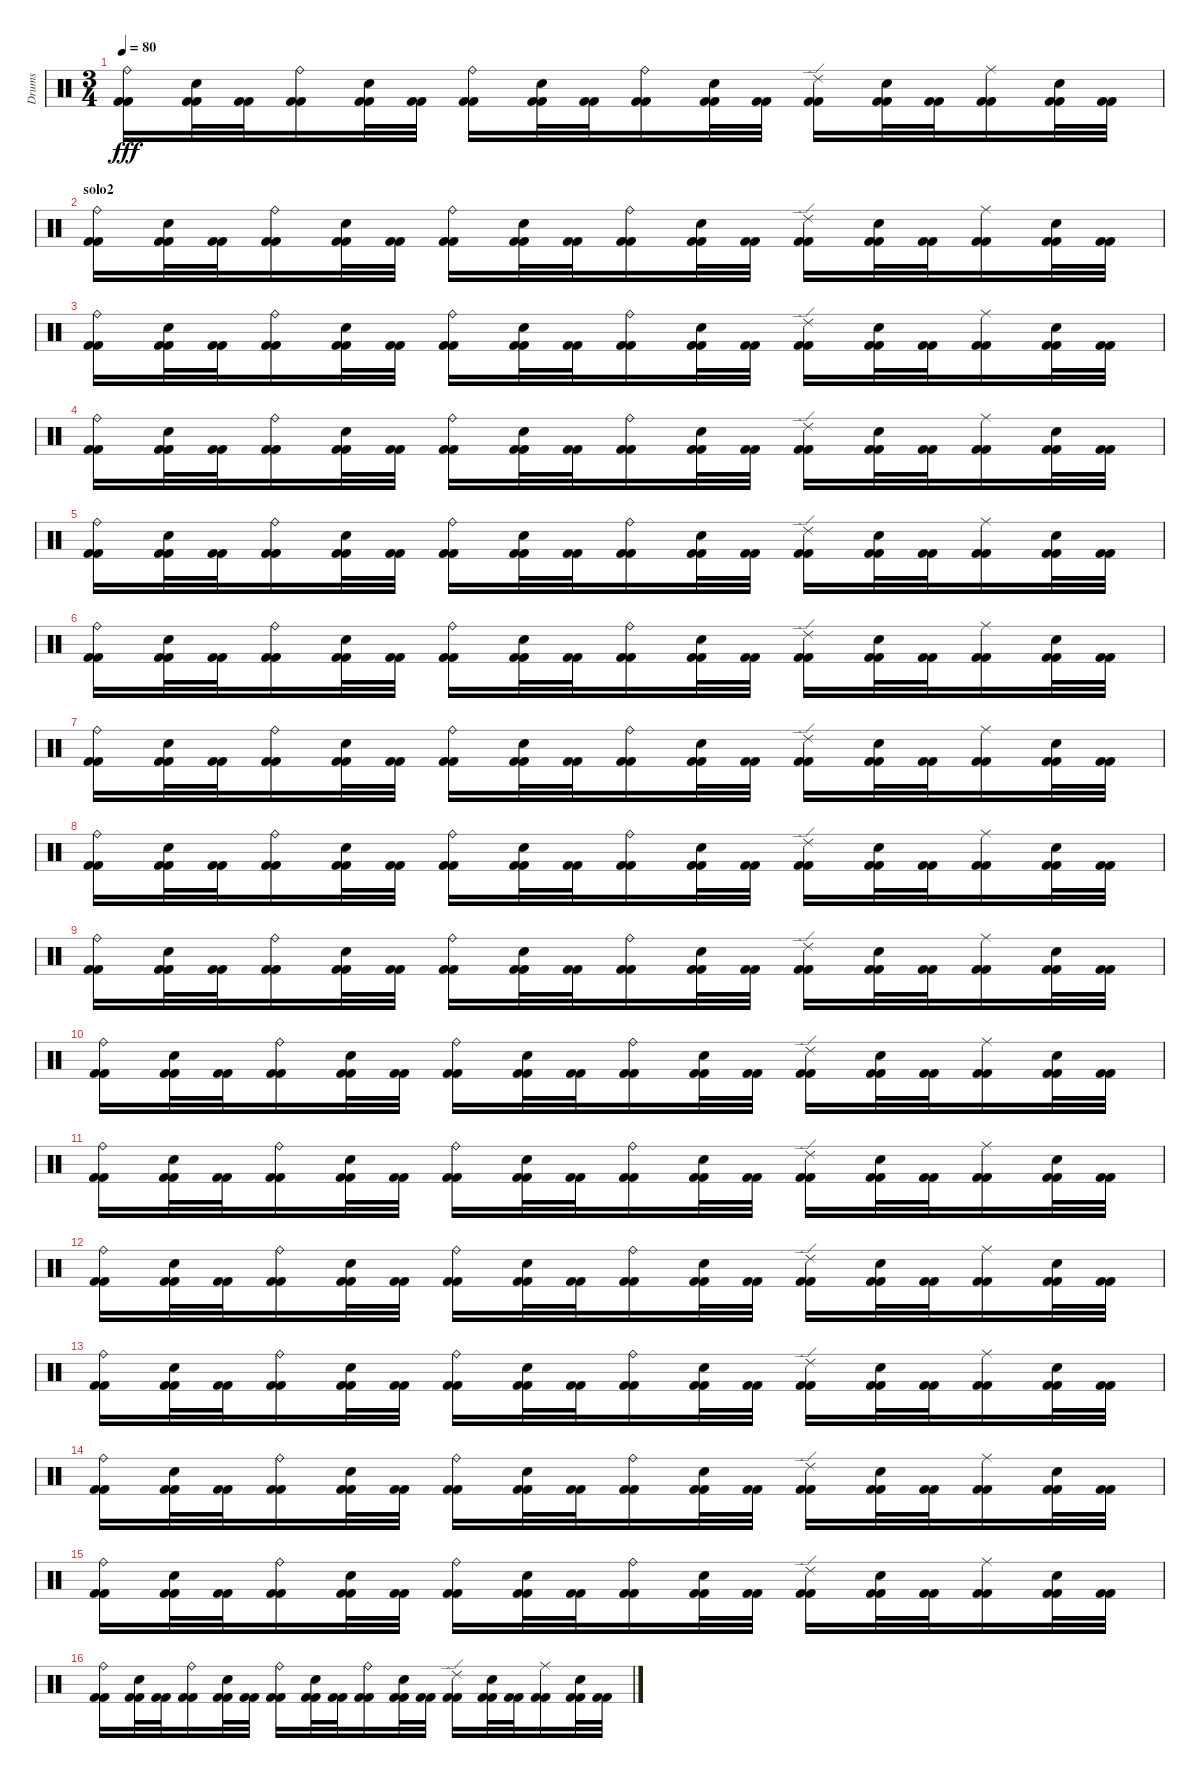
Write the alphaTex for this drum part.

\track ("Drums" "Drums") {instrument percussion}
\staff {score}
\articulation defaults
\ts (3 4)
\tempo 80
\clef neutral
\ks c
("Ride (bell)" "Kick (hit) 2" "Kick (hit) 2").16{dy fff} ("Electric Snare (hit)" "Kick (hit) 2" "Kick (hit) 2").32 ("Kick (hit) 2" "Kick (hit) 2").32 ("Ride (bell)" "Kick (hit) 2" "Kick (hit) 2").16 ("Electric Snare (hit)" "Kick (hit) 2" "Kick (hit) 2").32 ("Kick (hit) 2" "Kick (hit) 2").32 ("Ride (bell)" "Kick (hit) 2" "Kick (hit) 2").16 ("Electric Snare (hit)" "Kick (hit) 2" "Kick (hit) 2").32 ("Kick (hit) 2" "Kick (hit) 2").32 ("Ride (bell)" "Kick (hit) 2" "Kick (hit) 2").16 ("Electric Snare (hit)" "Kick (hit) 2" "Kick (hit) 2").32 ("Kick (hit) 2" "Kick (hit) 2").32 ("Ride (edge) 2" "Kick (hit) 2" "Kick (hit) 2").16 ("Snare (hit) 2" "Kick (hit) 2" "Kick (hit) 2").32 ("Kick (hit) 2" "Kick (hit) 2").32 ("Ride (middle)" "Kick (hit) 2" "Kick (hit) 2").16 ("Snare (hit) 2" "Kick (hit) 2" "Kick (hit) 2").32 ("Kick (hit) 2" "Kick (hit) 2").32 |
\section ("" "solo2")
("Ride (bell)" "Kick (hit) 2" "Kick (hit) 2").16 ("Electric Snare (hit)" "Kick (hit) 2" "Kick (hit) 2").32 ("Kick (hit) 2" "Kick (hit) 2").32 ("Ride (bell)" "Kick (hit) 2" "Kick (hit) 2").16 ("Electric Snare (hit)" "Kick (hit) 2" "Kick (hit) 2").32 ("Kick (hit) 2" "Kick (hit) 2").32 ("Ride (bell)" "Kick (hit) 2" "Kick (hit) 2").16 ("Electric Snare (hit)" "Kick (hit) 2" "Kick (hit) 2").32 ("Kick (hit) 2" "Kick (hit) 2").32 ("Ride (bell)" "Kick (hit) 2" "Kick (hit) 2").16 ("Electric Snare (hit)" "Kick (hit) 2" "Kick (hit) 2").32 ("Kick (hit) 2" "Kick (hit) 2").32 ("Ride (edge) 2" "Kick (hit) 2" "Kick (hit) 2").16 ("Snare (hit) 2" "Kick (hit) 2" "Kick (hit) 2").32 ("Kick (hit) 2" "Kick (hit) 2").32 ("Ride (middle)" "Kick (hit) 2" "Kick (hit) 2").16 ("Snare (hit) 2" "Kick (hit) 2" "Kick (hit) 2").32 ("Kick (hit) 2" "Kick (hit) 2").32 |
("Ride (bell)" "Kick (hit) 2" "Kick (hit) 2").16 ("Electric Snare (hit)" "Kick (hit) 2" "Kick (hit) 2").32 ("Kick (hit) 2" "Kick (hit) 2").32 ("Ride (bell)" "Kick (hit) 2" "Kick (hit) 2").16 ("Electric Snare (hit)" "Kick (hit) 2" "Kick (hit) 2").32 ("Kick (hit) 2" "Kick (hit) 2").32 ("Ride (bell)" "Kick (hit) 2" "Kick (hit) 2").16 ("Electric Snare (hit)" "Kick (hit) 2" "Kick (hit) 2").32 ("Kick (hit) 2" "Kick (hit) 2").32 ("Ride (bell)" "Kick (hit) 2" "Kick (hit) 2").16 ("Electric Snare (hit)" "Kick (hit) 2" "Kick (hit) 2").32 ("Kick (hit) 2" "Kick (hit) 2").32 ("Ride (edge) 2" "Kick (hit) 2" "Kick (hit) 2").16 ("Snare (hit) 2" "Kick (hit) 2" "Kick (hit) 2").32 ("Kick (hit) 2" "Kick (hit) 2").32 ("Ride (middle)" "Kick (hit) 2" "Kick (hit) 2").16 ("Snare (hit) 2" "Kick (hit) 2" "Kick (hit) 2").32 ("Kick (hit) 2" "Kick (hit) 2").32 |
("Ride (bell)" "Kick (hit) 2" "Kick (hit) 2").16 ("Electric Snare (hit)" "Kick (hit) 2" "Kick (hit) 2").32 ("Kick (hit) 2" "Kick (hit) 2").32 ("Ride (bell)" "Kick (hit) 2" "Kick (hit) 2").16 ("Electric Snare (hit)" "Kick (hit) 2" "Kick (hit) 2").32 ("Kick (hit) 2" "Kick (hit) 2").32 ("Ride (bell)" "Kick (hit) 2" "Kick (hit) 2").16 ("Electric Snare (hit)" "Kick (hit) 2" "Kick (hit) 2").32 ("Kick (hit) 2" "Kick (hit) 2").32 ("Ride (bell)" "Kick (hit) 2" "Kick (hit) 2").16 ("Electric Snare (hit)" "Kick (hit) 2" "Kick (hit) 2").32 ("Kick (hit) 2" "Kick (hit) 2").32 ("Ride (edge) 2" "Kick (hit) 2" "Kick (hit) 2").16 ("Snare (hit) 2" "Kick (hit) 2" "Kick (hit) 2").32 ("Kick (hit) 2" "Kick (hit) 2").32 ("Ride (middle)" "Kick (hit) 2" "Kick (hit) 2").16 ("Snare (hit) 2" "Kick (hit) 2" "Kick (hit) 2").32 ("Kick (hit) 2" "Kick (hit) 2").32 |
("Ride (bell)" "Kick (hit) 2" "Kick (hit) 2").16 ("Electric Snare (hit)" "Kick (hit) 2" "Kick (hit) 2").32 ("Kick (hit) 2" "Kick (hit) 2").32 ("Ride (bell)" "Kick (hit) 2" "Kick (hit) 2").16 ("Electric Snare (hit)" "Kick (hit) 2" "Kick (hit) 2").32 ("Kick (hit) 2" "Kick (hit) 2").32 ("Ride (bell)" "Kick (hit) 2" "Kick (hit) 2").16 ("Electric Snare (hit)" "Kick (hit) 2" "Kick (hit) 2").32 ("Kick (hit) 2" "Kick (hit) 2").32 ("Ride (bell)" "Kick (hit) 2" "Kick (hit) 2").16 ("Electric Snare (hit)" "Kick (hit) 2" "Kick (hit) 2").32 ("Kick (hit) 2" "Kick (hit) 2").32 ("Ride (edge) 2" "Kick (hit) 2" "Kick (hit) 2").16 ("Snare (hit) 2" "Kick (hit) 2" "Kick (hit) 2").32 ("Kick (hit) 2" "Kick (hit) 2").32 ("Ride (middle)" "Kick (hit) 2" "Kick (hit) 2").16 ("Snare (hit) 2" "Kick (hit) 2" "Kick (hit) 2").32 ("Kick (hit) 2" "Kick (hit) 2").32 |
("Ride (bell)" "Kick (hit) 2" "Kick (hit) 2").16 ("Electric Snare (hit)" "Kick (hit) 2" "Kick (hit) 2").32 ("Kick (hit) 2" "Kick (hit) 2").32 ("Ride (bell)" "Kick (hit) 2" "Kick (hit) 2").16 ("Electric Snare (hit)" "Kick (hit) 2" "Kick (hit) 2").32 ("Kick (hit) 2" "Kick (hit) 2").32 ("Ride (bell)" "Kick (hit) 2" "Kick (hit) 2").16 ("Electric Snare (hit)" "Kick (hit) 2" "Kick (hit) 2").32 ("Kick (hit) 2" "Kick (hit) 2").32 ("Ride (bell)" "Kick (hit) 2" "Kick (hit) 2").16 ("Electric Snare (hit)" "Kick (hit) 2" "Kick (hit) 2").32 ("Kick (hit) 2" "Kick (hit) 2").32 ("Ride (edge) 2" "Kick (hit) 2" "Kick (hit) 2").16 ("Snare (hit) 2" "Kick (hit) 2" "Kick (hit) 2").32 ("Kick (hit) 2" "Kick (hit) 2").32 ("Ride (middle)" "Kick (hit) 2" "Kick (hit) 2").16 ("Snare (hit) 2" "Kick (hit) 2" "Kick (hit) 2").32 ("Kick (hit) 2" "Kick (hit) 2").32 |
("Ride (bell)" "Kick (hit) 2" "Kick (hit) 2").16 ("Electric Snare (hit)" "Kick (hit) 2" "Kick (hit) 2").32 ("Kick (hit) 2" "Kick (hit) 2").32 ("Ride (bell)" "Kick (hit) 2" "Kick (hit) 2").16 ("Electric Snare (hit)" "Kick (hit) 2" "Kick (hit) 2").32 ("Kick (hit) 2" "Kick (hit) 2").32 ("Ride (bell)" "Kick (hit) 2" "Kick (hit) 2").16 ("Electric Snare (hit)" "Kick (hit) 2" "Kick (hit) 2").32 ("Kick (hit) 2" "Kick (hit) 2").32 ("Ride (bell)" "Kick (hit) 2" "Kick (hit) 2").16 ("Electric Snare (hit)" "Kick (hit) 2" "Kick (hit) 2").32 ("Kick (hit) 2" "Kick (hit) 2").32 ("Ride (edge) 2" "Kick (hit) 2" "Kick (hit) 2").16 ("Snare (hit) 2" "Kick (hit) 2" "Kick (hit) 2").32 ("Kick (hit) 2" "Kick (hit) 2").32 ("Ride (middle)" "Kick (hit) 2" "Kick (hit) 2").16 ("Snare (hit) 2" "Kick (hit) 2" "Kick (hit) 2").32 ("Kick (hit) 2" "Kick (hit) 2").32 |
("Ride (bell)" "Kick (hit) 2" "Kick (hit) 2").16 ("Electric Snare (hit)" "Kick (hit) 2" "Kick (hit) 2").32 ("Kick (hit) 2" "Kick (hit) 2").32 ("Ride (bell)" "Kick (hit) 2" "Kick (hit) 2").16 ("Electric Snare (hit)" "Kick (hit) 2" "Kick (hit) 2").32 ("Kick (hit) 2" "Kick (hit) 2").32 ("Ride (bell)" "Kick (hit) 2" "Kick (hit) 2").16 ("Electric Snare (hit)" "Kick (hit) 2" "Kick (hit) 2").32 ("Kick (hit) 2" "Kick (hit) 2").32 ("Ride (bell)" "Kick (hit) 2" "Kick (hit) 2").16 ("Electric Snare (hit)" "Kick (hit) 2" "Kick (hit) 2").32 ("Kick (hit) 2" "Kick (hit) 2").32 ("Ride (edge) 2" "Kick (hit) 2" "Kick (hit) 2").16 ("Snare (hit) 2" "Kick (hit) 2" "Kick (hit) 2").32 ("Kick (hit) 2" "Kick (hit) 2").32 ("Ride (middle)" "Kick (hit) 2" "Kick (hit) 2").16 ("Snare (hit) 2" "Kick (hit) 2" "Kick (hit) 2").32 ("Kick (hit) 2" "Kick (hit) 2").32 |
("Ride (bell)" "Kick (hit) 2" "Kick (hit) 2").16 ("Electric Snare (hit)" "Kick (hit) 2" "Kick (hit) 2").32 ("Kick (hit) 2" "Kick (hit) 2").32 ("Ride (bell)" "Kick (hit) 2" "Kick (hit) 2").16 ("Electric Snare (hit)" "Kick (hit) 2" "Kick (hit) 2").32 ("Kick (hit) 2" "Kick (hit) 2").32 ("Ride (bell)" "Kick (hit) 2" "Kick (hit) 2").16 ("Electric Snare (hit)" "Kick (hit) 2" "Kick (hit) 2").32 ("Kick (hit) 2" "Kick (hit) 2").32 ("Ride (bell)" "Kick (hit) 2" "Kick (hit) 2").16 ("Electric Snare (hit)" "Kick (hit) 2" "Kick (hit) 2").32 ("Kick (hit) 2" "Kick (hit) 2").32 ("Ride (edge) 2" "Kick (hit) 2" "Kick (hit) 2").16 ("Snare (hit) 2" "Kick (hit) 2" "Kick (hit) 2").32 ("Kick (hit) 2" "Kick (hit) 2").32 ("Ride (middle)" "Kick (hit) 2" "Kick (hit) 2").16 ("Snare (hit) 2" "Kick (hit) 2" "Kick (hit) 2").32 ("Kick (hit) 2" "Kick (hit) 2").32 |
("Ride (bell)" "Kick (hit) 2" "Kick (hit) 2").16 ("Electric Snare (hit)" "Kick (hit) 2" "Kick (hit) 2").32 ("Kick (hit) 2" "Kick (hit) 2").32 ("Ride (bell)" "Kick (hit) 2" "Kick (hit) 2").16 ("Electric Snare (hit)" "Kick (hit) 2" "Kick (hit) 2").32 ("Kick (hit) 2" "Kick (hit) 2").32 ("Ride (bell)" "Kick (hit) 2" "Kick (hit) 2").16 ("Electric Snare (hit)" "Kick (hit) 2" "Kick (hit) 2").32 ("Kick (hit) 2" "Kick (hit) 2").32 ("Ride (bell)" "Kick (hit) 2" "Kick (hit) 2").16 ("Electric Snare (hit)" "Kick (hit) 2" "Kick (hit) 2").32 ("Kick (hit) 2" "Kick (hit) 2").32 ("Ride (edge) 2" "Kick (hit) 2" "Kick (hit) 2").16 ("Snare (hit) 2" "Kick (hit) 2" "Kick (hit) 2").32 ("Kick (hit) 2" "Kick (hit) 2").32 ("Ride (middle)" "Kick (hit) 2" "Kick (hit) 2").16 ("Snare (hit) 2" "Kick (hit) 2" "Kick (hit) 2").32 ("Kick (hit) 2" "Kick (hit) 2").32 |
("Ride (bell)" "Kick (hit) 2" "Kick (hit) 2").16 ("Electric Snare (hit)" "Kick (hit) 2" "Kick (hit) 2").32 ("Kick (hit) 2" "Kick (hit) 2").32 ("Ride (bell)" "Kick (hit) 2" "Kick (hit) 2").16 ("Electric Snare (hit)" "Kick (hit) 2" "Kick (hit) 2").32 ("Kick (hit) 2" "Kick (hit) 2").32 ("Ride (bell)" "Kick (hit) 2" "Kick (hit) 2").16 ("Electric Snare (hit)" "Kick (hit) 2" "Kick (hit) 2").32 ("Kick (hit) 2" "Kick (hit) 2").32 ("Ride (bell)" "Kick (hit) 2" "Kick (hit) 2").16 ("Electric Snare (hit)" "Kick (hit) 2" "Kick (hit) 2").32 ("Kick (hit) 2" "Kick (hit) 2").32 ("Ride (edge) 2" "Kick (hit) 2" "Kick (hit) 2").16 ("Snare (hit) 2" "Kick (hit) 2" "Kick (hit) 2").32 ("Kick (hit) 2" "Kick (hit) 2").32 ("Ride (middle)" "Kick (hit) 2" "Kick (hit) 2").16 ("Snare (hit) 2" "Kick (hit) 2" "Kick (hit) 2").32 ("Kick (hit) 2" "Kick (hit) 2").32 |
("Ride (bell)" "Kick (hit) 2" "Kick (hit) 2").16 ("Electric Snare (hit)" "Kick (hit) 2" "Kick (hit) 2").32 ("Kick (hit) 2" "Kick (hit) 2").32 ("Ride (bell)" "Kick (hit) 2" "Kick (hit) 2").16 ("Electric Snare (hit)" "Kick (hit) 2" "Kick (hit) 2").32 ("Kick (hit) 2" "Kick (hit) 2").32 ("Ride (bell)" "Kick (hit) 2" "Kick (hit) 2").16 ("Electric Snare (hit)" "Kick (hit) 2" "Kick (hit) 2").32 ("Kick (hit) 2" "Kick (hit) 2").32 ("Ride (bell)" "Kick (hit) 2" "Kick (hit) 2").16 ("Electric Snare (hit)" "Kick (hit) 2" "Kick (hit) 2").32 ("Kick (hit) 2" "Kick (hit) 2").32 ("Ride (edge) 2" "Kick (hit) 2" "Kick (hit) 2").16 ("Snare (hit) 2" "Kick (hit) 2" "Kick (hit) 2").32 ("Kick (hit) 2" "Kick (hit) 2").32 ("Ride (middle)" "Kick (hit) 2" "Kick (hit) 2").16 ("Snare (hit) 2" "Kick (hit) 2" "Kick (hit) 2").32 ("Kick (hit) 2" "Kick (hit) 2").32 |
("Ride (bell)" "Kick (hit) 2" "Kick (hit) 2").16 ("Electric Snare (hit)" "Kick (hit) 2" "Kick (hit) 2").32 ("Kick (hit) 2" "Kick (hit) 2").32 ("Ride (bell)" "Kick (hit) 2" "Kick (hit) 2").16 ("Electric Snare (hit)" "Kick (hit) 2" "Kick (hit) 2").32 ("Kick (hit) 2" "Kick (hit) 2").32 ("Ride (bell)" "Kick (hit) 2" "Kick (hit) 2").16 ("Electric Snare (hit)" "Kick (hit) 2" "Kick (hit) 2").32 ("Kick (hit) 2" "Kick (hit) 2").32 ("Ride (bell)" "Kick (hit) 2" "Kick (hit) 2").16 ("Electric Snare (hit)" "Kick (hit) 2" "Kick (hit) 2").32 ("Kick (hit) 2" "Kick (hit) 2").32 ("Ride (edge) 2" "Kick (hit) 2" "Kick (hit) 2").16 ("Snare (hit) 2" "Kick (hit) 2" "Kick (hit) 2").32 ("Kick (hit) 2" "Kick (hit) 2").32 ("Ride (middle)" "Kick (hit) 2" "Kick (hit) 2").16 ("Snare (hit) 2" "Kick (hit) 2" "Kick (hit) 2").32 ("Kick (hit) 2" "Kick (hit) 2").32 |
("Ride (bell)" "Kick (hit) 2" "Kick (hit) 2").16 ("Electric Snare (hit)" "Kick (hit) 2" "Kick (hit) 2").32 ("Kick (hit) 2" "Kick (hit) 2").32 ("Ride (bell)" "Kick (hit) 2" "Kick (hit) 2").16 ("Electric Snare (hit)" "Kick (hit) 2" "Kick (hit) 2").32 ("Kick (hit) 2" "Kick (hit) 2").32 ("Ride (bell)" "Kick (hit) 2" "Kick (hit) 2").16 ("Electric Snare (hit)" "Kick (hit) 2" "Kick (hit) 2").32 ("Kick (hit) 2" "Kick (hit) 2").32 ("Ride (bell)" "Kick (hit) 2" "Kick (hit) 2").16 ("Electric Snare (hit)" "Kick (hit) 2" "Kick (hit) 2").32 ("Kick (hit) 2" "Kick (hit) 2").32 ("Ride (edge) 2" "Kick (hit) 2" "Kick (hit) 2").16 ("Snare (hit) 2" "Kick (hit) 2" "Kick (hit) 2").32 ("Kick (hit) 2" "Kick (hit) 2").32 ("Ride (middle)" "Kick (hit) 2" "Kick (hit) 2").16 ("Snare (hit) 2" "Kick (hit) 2" "Kick (hit) 2").32 ("Kick (hit) 2" "Kick (hit) 2").32 |
("Ride (bell)" "Kick (hit) 2" "Kick (hit) 2").16 ("Electric Snare (hit)" "Kick (hit) 2" "Kick (hit) 2").32 ("Kick (hit) 2" "Kick (hit) 2").32 ("Ride (bell)" "Kick (hit) 2" "Kick (hit) 2").16 ("Electric Snare (hit)" "Kick (hit) 2" "Kick (hit) 2").32 ("Kick (hit) 2" "Kick (hit) 2").32 ("Ride (bell)" "Kick (hit) 2" "Kick (hit) 2").16 ("Electric Snare (hit)" "Kick (hit) 2" "Kick (hit) 2").32 ("Kick (hit) 2" "Kick (hit) 2").32 ("Ride (bell)" "Kick (hit) 2" "Kick (hit) 2").16 ("Electric Snare (hit)" "Kick (hit) 2" "Kick (hit) 2").32 ("Kick (hit) 2" "Kick (hit) 2").32 ("Ride (edge) 2" "Kick (hit) 2" "Kick (hit) 2").16 ("Snare (hit) 2" "Kick (hit) 2" "Kick (hit) 2").32 ("Kick (hit) 2" "Kick (hit) 2").32 ("Ride (middle)" "Kick (hit) 2" "Kick (hit) 2").16 ("Snare (hit) 2" "Kick (hit) 2" "Kick (hit) 2").32 ("Kick (hit) 2" "Kick (hit) 2").32 |
("Ride (bell)" "Kick (hit) 2" "Kick (hit) 2").16 ("Electric Snare (hit)" "Kick (hit) 2" "Kick (hit) 2").32 ("Kick (hit) 2" "Kick (hit) 2").32 ("Ride (bell)" "Kick (hit) 2" "Kick (hit) 2").16 ("Electric Snare (hit)" "Kick (hit) 2" "Kick (hit) 2").32 ("Kick (hit) 2" "Kick (hit) 2").32 ("Ride (bell)" "Kick (hit) 2" "Kick (hit) 2").16 ("Electric Snare (hit)" "Kick (hit) 2" "Kick (hit) 2").32 ("Kick (hit) 2" "Kick (hit) 2").32 ("Ride (bell)" "Kick (hit) 2" "Kick (hit) 2").16 ("Electric Snare (hit)" "Kick (hit) 2" "Kick (hit) 2").32 ("Kick (hit) 2" "Kick (hit) 2").32 ("Ride (edge) 2" "Kick (hit) 2" "Kick (hit) 2").16 ("Snare (hit) 2" "Kick (hit) 2" "Kick (hit) 2").32 ("Kick (hit) 2" "Kick (hit) 2").32 ("Ride (middle)" "Kick (hit) 2" "Kick (hit) 2").16 ("Snare (hit) 2" "Kick (hit) 2" "Kick (hit) 2").32 ("Kick (hit) 2" "Kick (hit) 2").32
